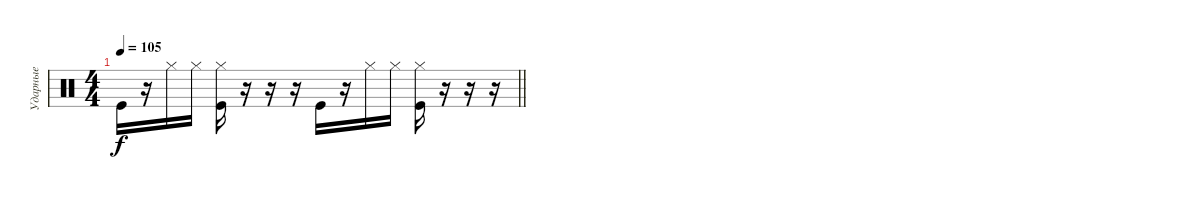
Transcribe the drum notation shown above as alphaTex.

\track ("Ударные" "Ударные") {instrument percussion}
\staff {score}
\articulation defaults
\ts (4 4)
\tempo 105
\clef neutral
\barLineRight lightlight
\ks c "Kick (hit)".16{dy f}
r.16 "Hi-Hat (closed)".16 "Hi-Hat (closed)".16 ("Hi-Hat (closed)" "Kick (hit)").16 r.16 r.16 r.16 "Kick (hit)".16 r.16 "Hi-Hat (closed)".16 "Hi-Hat (closed)".16 ("Hi-Hat (closed)" "Kick (hit)").16 r.16 r.16 r.16
